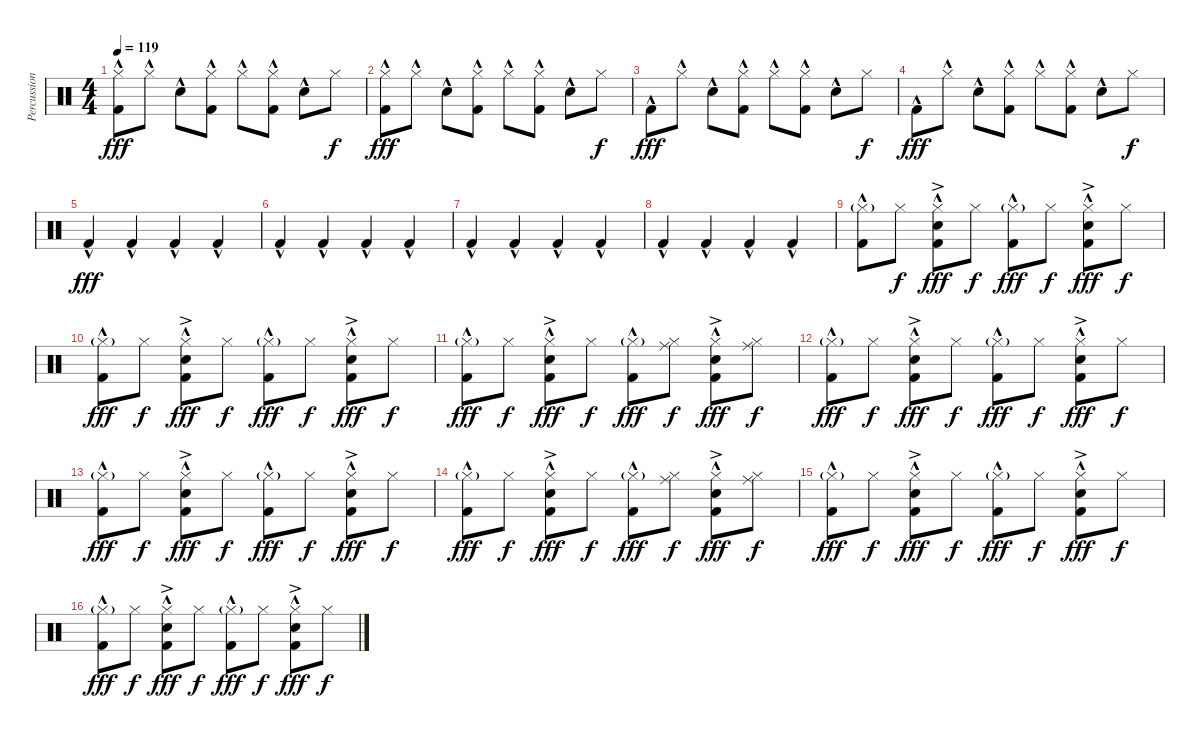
\track ("Percussion" "Percussion") {instrument percussion}
\staff {score}
\articulation defaults
\ts (4 4)
\tempo 119
\clef neutral
\ks c
("Hi-Hat (closed)" "Kick (hit) 2"{hac}).8{dy fff} "Hi-Hat (closed)"{hac}.8 "Electric Snare (hit)"{hac}.8 ("Hi-Hat (closed)"{hac} "Kick (hit) 2"{hac}).8 "Hi-Hat (closed)"{hac}.8 ("Hi-Hat (closed)"{hac} "Kick (hit) 2"{hac}).8 "Electric Snare (hit)"{hac}.8 "Hi-Hat (closed)".8{dy f} |
("Hi-Hat (closed)" "Kick (hit) 2"{hac}).8{dy fff} "Hi-Hat (closed)"{hac}.8 "Electric Snare (hit)"{hac}.8 ("Hi-Hat (closed)"{hac} "Kick (hit) 2"{hac}).8 "Hi-Hat (closed)"{hac}.8 ("Hi-Hat (closed)"{hac} "Kick (hit) 2"{hac}).8 "Electric Snare (hit)"{hac}.8 "Hi-Hat (closed)".8{dy f} |
"Kick (hit) 2"{hac}.8{dy fff} "Hi-Hat (closed)"{hac}.8 "Electric Snare (hit)"{hac}.8 ("Hi-Hat (closed)"{hac} "Kick (hit) 2"{hac}).8 "Hi-Hat (closed)"{hac}.8 ("Hi-Hat (closed)"{hac} "Kick (hit) 2"{hac}).8 "Electric Snare (hit)"{hac}.8 "Hi-Hat (closed)".8{dy f} |
"Kick (hit) 2"{hac}.8{dy fff} "Hi-Hat (closed)"{hac}.8 "Electric Snare (hit)"{hac}.8 ("Hi-Hat (closed)"{hac} "Kick (hit) 2"{hac}).8 "Hi-Hat (closed)"{hac}.8 ("Hi-Hat (closed)"{hac} "Kick (hit) 2"{hac}).8 "Electric Snare (hit)"{hac}.8 "Hi-Hat (closed)".8{dy f} |
"Kick (hit) 2"{hac}.4{dy fff} "Kick (hit) 2"{hac}.4 "Kick (hit) 2"{hac}.4 "Kick (hit) 2"{hac}.4 |
"Kick (hit) 2"{hac}.4 "Kick (hit) 2"{hac}.4 "Kick (hit) 2"{hac}.4 "Kick (hit) 2"{hac}.4 |
"Kick (hit) 2"{hac}.4 "Kick (hit) 2"{hac}.4 "Kick (hit) 2"{hac}.4 "Kick (hit) 2"{hac}.4 |
"Kick (hit) 2"{hac}.4 "Kick (hit) 2"{hac}.4 "Kick (hit) 2"{hac}.4 "Kick (hit) 2"{hac}.4 |
("Hi-Hat (closed)"{g} "Kick (hit) 2"{hac}).8 "Hi-Hat (closed)".8{dy f} ("Hi-Hat (closed)"{hac} "Electric Snare (hit)"{ac} "Kick (hit) 2"{hac}).8{dy fff} "Hi-Hat (closed)".8{dy f} ("Hi-Hat (closed)"{g} "Kick (hit) 2"{hac}).8{dy fff} "Hi-Hat (closed)".8{dy f} ("Hi-Hat (closed)"{hac} "Electric Snare (hit)"{ac} "Kick (hit) 2"{hac}).8{dy fff} "Hi-Hat (closed)".8{dy f} |
("Hi-Hat (closed)"{g} "Kick (hit) 2"{hac}).8{dy fff} "Hi-Hat (closed)".8{dy f} ("Hi-Hat (closed)"{hac} "Electric Snare (hit)"{ac} "Kick (hit) 2"{hac}).8{dy fff} "Hi-Hat (closed)".8{dy f} ("Hi-Hat (closed)"{g} "Kick (hit) 2"{hac}).8{dy fff} "Hi-Hat (closed)".8{dy f} ("Hi-Hat (closed)"{hac} "Electric Snare (hit)"{ac} "Kick (hit) 2"{hac}).8{dy fff} "Hi-Hat (closed)".8{dy f} |
("Hi-Hat (closed)"{g} "Kick (hit) 2"{hac}).8{dy fff} "Hi-Hat (closed)".8{dy f} ("Hi-Hat (closed)"{hac} "Electric Snare (hit)"{ac} "Kick (hit) 2"{hac}).8{dy fff} "Hi-Hat (closed)".8{dy f} ("Hi-Hat (closed)"{g} "Kick (hit) 2"{hac}).8{dy fff} ("Ride (middle)" "Hi-Hat (closed)").8{dy f} ("Hi-Hat (closed)"{hac} "Electric Snare (hit)"{ac} "Kick (hit) 2"{hac}).8{dy fff} ("Ride (middle)" "Hi-Hat (closed)").8{dy f} |
("Hi-Hat (closed)"{g} "Kick (hit) 2"{hac}).8{dy fff} "Hi-Hat (closed)".8{dy f} ("Hi-Hat (closed)"{hac} "Electric Snare (hit)"{ac} "Kick (hit) 2"{hac}).8{dy fff} "Hi-Hat (closed)".8{dy f} ("Hi-Hat (closed)"{g} "Kick (hit) 2"{hac}).8{dy fff} "Hi-Hat (closed)".8{dy f} ("Hi-Hat (closed)"{hac} "Electric Snare (hit)"{ac} "Kick (hit) 2"{hac}).8{dy fff} "Hi-Hat (closed)".8{dy f} |
("Hi-Hat (closed)"{g} "Kick (hit) 2"{hac}).8{dy fff} "Hi-Hat (closed)".8{dy f} ("Hi-Hat (closed)"{hac} "Electric Snare (hit)"{ac} "Kick (hit) 2"{hac}).8{dy fff} "Hi-Hat (closed)".8{dy f} ("Hi-Hat (closed)"{g} "Kick (hit) 2"{hac}).8{dy fff} "Hi-Hat (closed)".8{dy f} ("Hi-Hat (closed)"{hac} "Electric Snare (hit)"{ac} "Kick (hit) 2"{hac}).8{dy fff} "Hi-Hat (closed)".8{dy f} |
("Hi-Hat (closed)"{g} "Kick (hit) 2"{hac}).8{dy fff} "Hi-Hat (closed)".8{dy f} ("Hi-Hat (closed)"{hac} "Electric Snare (hit)"{ac} "Kick (hit) 2"{hac}).8{dy fff} "Hi-Hat (closed)".8{dy f} ("Hi-Hat (closed)"{g} "Kick (hit) 2"{hac}).8{dy fff} ("Ride (middle)" "Hi-Hat (closed)").8{dy f} ("Hi-Hat (closed)"{hac} "Electric Snare (hit)"{ac} "Kick (hit) 2"{hac}).8{dy fff} ("Ride (middle)" "Hi-Hat (closed)").8{dy f} |
("Hi-Hat (closed)"{g} "Kick (hit) 2"{hac}).8{dy fff} "Hi-Hat (closed)".8{dy f} ("Hi-Hat (closed)"{hac} "Electric Snare (hit)"{ac} "Kick (hit) 2"{hac}).8{dy fff} "Hi-Hat (closed)".8{dy f} ("Hi-Hat (closed)"{g} "Kick (hit) 2"{hac}).8{dy fff} "Hi-Hat (closed)".8{dy f} ("Hi-Hat (closed)"{hac} "Electric Snare (hit)"{ac} "Kick (hit) 2"{hac}).8{dy fff} "Hi-Hat (closed)".8{dy f} |
("Hi-Hat (closed)"{g} "Kick (hit) 2"{hac}).8{dy fff} "Hi-Hat (closed)".8{dy f} ("Hi-Hat (closed)"{hac} "Electric Snare (hit)"{ac} "Kick (hit) 2"{hac}).8{dy fff} "Hi-Hat (closed)".8{dy f} ("Hi-Hat (closed)"{g} "Kick (hit) 2"{hac}).8{dy fff} "Hi-Hat (closed)".8{dy f} ("Hi-Hat (closed)"{hac} "Electric Snare (hit)"{ac} "Kick (hit) 2"{hac}).8{dy fff} "Hi-Hat (closed)".8{dy f}
